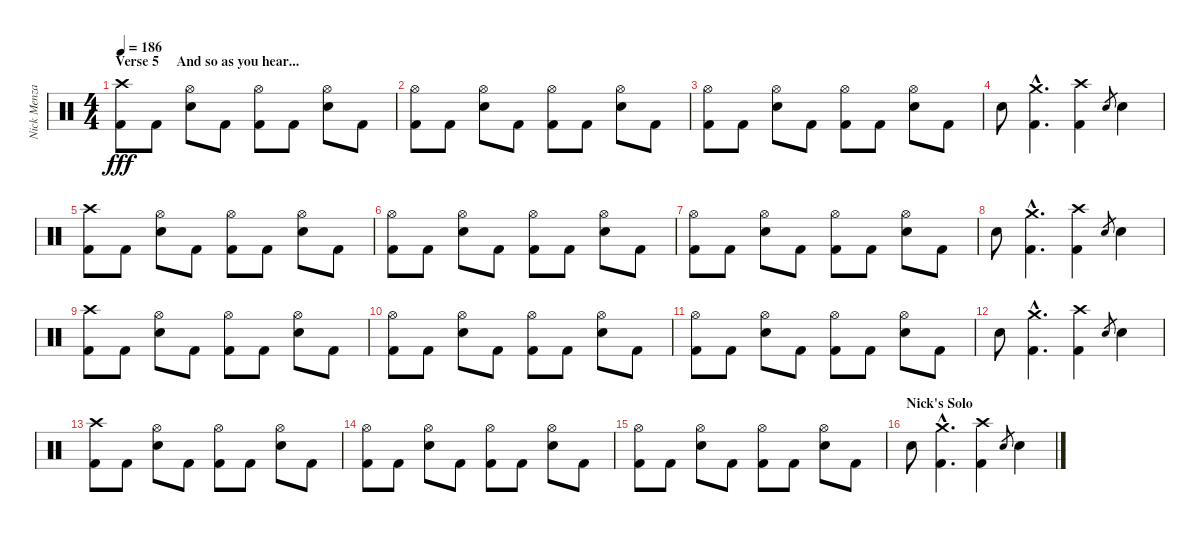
\track ("Nick Menza [Drums]" "Nick Menza") {instrument percussion}
\staff {score}
\articulation defaults
\ts (4 4)
\section ("" "Verse 5     And so as you hear...")
\tempo 186
\clef neutral
\ks c
("Kick (hit) 2" "Crash high (hit)").8{dy fff} "Kick (hit) 2".8 ("Snare (hit) 2" "Hi-Hat (open)").8 "Kick (hit) 2".8 ("Kick (hit) 2" "Hi-Hat (open)").8 "Kick (hit) 2".8 ("Snare (hit) 2" "Hi-Hat (open)").8 "Kick (hit) 2".8 |
("Kick (hit) 2" "Hi-Hat (open)").8 "Kick (hit) 2".8 ("Snare (hit) 2" "Hi-Hat (open)").8 "Kick (hit) 2".8 ("Kick (hit) 2" "Hi-Hat (open)").8 "Kick (hit) 2".8 ("Snare (hit) 2" "Hi-Hat (open)").8 "Kick (hit) 2".8 |
("Kick (hit) 2" "Hi-Hat (open)").8 "Kick (hit) 2".8 ("Snare (hit) 2" "Hi-Hat (open)").8 "Kick (hit) 2".8 ("Kick (hit) 2" "Hi-Hat (open)").8 "Kick (hit) 2".8 ("Snare (hit) 2" "Hi-Hat (open)").8 "Kick (hit) 2".8 |
"Snare (hit) 2".8 ("Kick (hit) 2"{hac} "Crash medium (hit)"{hac}).4{d} ("Kick (hit) 2" "Crash high (hit)").4 "Snare (hit) 2".8{gr} "Snare (hit) 2".4 |
("Kick (hit) 2" "Crash high (hit)").8 "Kick (hit) 2".8 ("Snare (hit) 2" "Hi-Hat (open)").8 "Kick (hit) 2".8 ("Kick (hit) 2" "Hi-Hat (open)").8 "Kick (hit) 2".8 ("Snare (hit) 2" "Hi-Hat (open)").8 "Kick (hit) 2".8 |
("Kick (hit) 2" "Hi-Hat (open)").8 "Kick (hit) 2".8 ("Snare (hit) 2" "Hi-Hat (open)").8 "Kick (hit) 2".8 ("Kick (hit) 2" "Hi-Hat (open)").8 "Kick (hit) 2".8 ("Snare (hit) 2" "Hi-Hat (open)").8 "Kick (hit) 2".8 |
("Kick (hit) 2" "Hi-Hat (open)").8 "Kick (hit) 2".8 ("Snare (hit) 2" "Hi-Hat (open)").8 "Kick (hit) 2".8 ("Kick (hit) 2" "Hi-Hat (open)").8 "Kick (hit) 2".8 ("Snare (hit) 2" "Hi-Hat (open)").8 "Kick (hit) 2".8 |
"Snare (hit) 2".8 ("Kick (hit) 2"{hac} "Crash medium (hit)"{hac}).4{d} ("Kick (hit) 2" "Crash high (hit)").4 "Snare (hit) 2".8{gr} "Snare (hit) 2".4 |
("Kick (hit) 2" "Crash high (hit)").8 "Kick (hit) 2".8 ("Snare (hit) 2" "Hi-Hat (open)").8 "Kick (hit) 2".8 ("Kick (hit) 2" "Hi-Hat (open)").8 "Kick (hit) 2".8 ("Snare (hit) 2" "Hi-Hat (open)").8 "Kick (hit) 2".8 |
("Kick (hit) 2" "Hi-Hat (open)").8 "Kick (hit) 2".8 ("Snare (hit) 2" "Hi-Hat (open)").8 "Kick (hit) 2".8 ("Kick (hit) 2" "Hi-Hat (open)").8 "Kick (hit) 2".8 ("Snare (hit) 2" "Hi-Hat (open)").8 "Kick (hit) 2".8 |
("Kick (hit) 2" "Hi-Hat (open)").8 "Kick (hit) 2".8 ("Snare (hit) 2" "Hi-Hat (open)").8 "Kick (hit) 2".8 ("Kick (hit) 2" "Hi-Hat (open)").8 "Kick (hit) 2".8 ("Snare (hit) 2" "Hi-Hat (open)").8 "Kick (hit) 2".8 |
"Snare (hit) 2".8 ("Kick (hit) 2"{hac} "Crash medium (hit)"{hac}).4{d} ("Kick (hit) 2" "Crash high (hit)").4 "Snare (hit) 2".8{gr} "Snare (hit) 2".4 |
("Kick (hit) 2" "Crash high (hit)").8 "Kick (hit) 2".8 ("Snare (hit) 2" "Hi-Hat (open)").8 "Kick (hit) 2".8 ("Kick (hit) 2" "Hi-Hat (open)").8 "Kick (hit) 2".8 ("Snare (hit) 2" "Hi-Hat (open)").8 "Kick (hit) 2".8 |
("Kick (hit) 2" "Hi-Hat (open)").8 "Kick (hit) 2".8 ("Snare (hit) 2" "Hi-Hat (open)").8 "Kick (hit) 2".8 ("Kick (hit) 2" "Hi-Hat (open)").8 "Kick (hit) 2".8 ("Snare (hit) 2" "Hi-Hat (open)").8 "Kick (hit) 2".8 |
("Kick (hit) 2" "Hi-Hat (open)").8 "Kick (hit) 2".8 ("Snare (hit) 2" "Hi-Hat (open)").8 "Kick (hit) 2".8 ("Kick (hit) 2" "Hi-Hat (open)").8 "Kick (hit) 2".8 ("Snare (hit) 2" "Hi-Hat (open)").8 "Kick (hit) 2".8 |
\section ("" "Nick's Solo")
"Snare (hit) 2".8 ("Kick (hit) 2"{hac} "Crash medium (hit)"{hac}).4{d} ("Kick (hit) 2" "Crash high (hit)").4 "Snare (hit) 2".8{gr} "Snare (hit) 2".4
